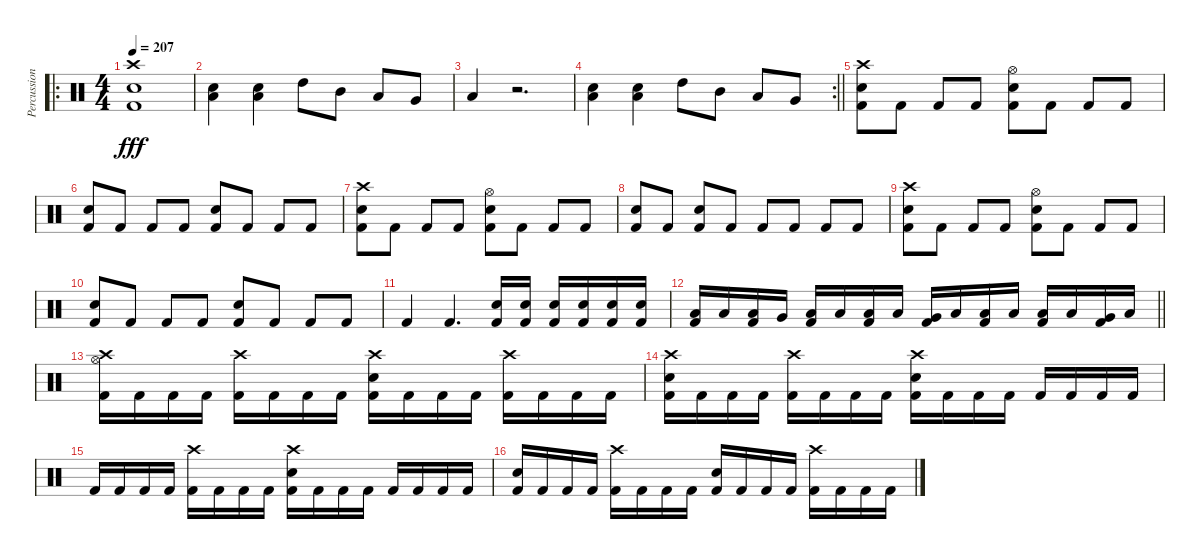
\track ("Percussion" "Percussion") {instrument percussion}
\staff {score}
\articulation defaults
\ro
\ts (4 4)
\section ("" "")
\tempo 207
\clef neutral
\ks c
("Crash high (hit)" "Electric Snare (hit)" "Kick (hit) 2").1{dy fff} |
("Low Floor Tom (hit)" "Electric Snare (hit)").4 ("Low Floor Tom (hit)" "Electric Snare (hit)").4 "High Tom (hit)".8 "Mid Tom (hit)".8 "Low Tom (hit)".8 "Very Low Tom (hit)".8 |
"Low Floor Tom (hit)".4 r.2{d} |
\rc 2
\barLineRight lightlight
("Low Floor Tom (hit)" "Electric Snare (hit)").4 ("Low Floor Tom (hit)" "Electric Snare (hit)").4 "High Tom (hit)".8 "Mid Tom (hit)".8 "Low Tom (hit)".8 "Very Low Tom (hit)".8 |
\section ("" "")
("Crash high (hit)" "Electric Snare (hit)" "Kick (hit) 2").8 "Kick (hit) 2".8 "Kick (hit) 2".8 "Kick (hit) 2".8 ("Hi-Hat (open)" "Electric Snare (hit)" "Kick (hit) 2").8 "Kick (hit) 2".8 "Kick (hit) 2".8 "Kick (hit) 2".8 |
("Electric Snare (hit)" "Kick (hit) 2").8 "Kick (hit) 2".8 "Kick (hit) 2".8 "Kick (hit) 2".8 ("Electric Snare (hit)" "Kick (hit) 2").8 "Kick (hit) 2".8 "Kick (hit) 2".8 "Kick (hit) 2".8 |
("Crash high (hit)" "Electric Snare (hit)" "Kick (hit) 2").8 "Kick (hit) 2".8 "Kick (hit) 2".8 "Kick (hit) 2".8 ("Hi-Hat (open)" "Electric Snare (hit)" "Kick (hit) 2").8 "Kick (hit) 2".8 "Kick (hit) 2".8 "Kick (hit) 2".8 |
("Electric Snare (hit)" "Kick (hit) 2").8 "Kick (hit) 2".8 ("Electric Snare (hit)" "Kick (hit) 2").8 "Kick (hit) 2".8 "Kick (hit) 2".8 "Kick (hit) 2".8 "Kick (hit) 2".8 "Kick (hit) 2".8 |
("Crash high (hit)" "Electric Snare (hit)" "Kick (hit) 2").8 "Kick (hit) 2".8 "Kick (hit) 2".8 "Kick (hit) 2".8 ("Hi-Hat (open)" "Electric Snare (hit)" "Kick (hit) 2").8 "Kick (hit) 2".8 "Kick (hit) 2".8 "Kick (hit) 2".8 |
("Electric Snare (hit)" "Kick (hit) 2").8 "Kick (hit) 2".8 "Kick (hit) 2".8 "Kick (hit) 2".8 ("Electric Snare (hit)" "Kick (hit) 2").8 "Kick (hit) 2".8 "Kick (hit) 2".8 "Kick (hit) 2".8 |
"Kick (hit) 2".4 "Kick (hit) 2".4{d} ("Electric Snare (hit)" "Kick (hit) 2").16 ("Electric Snare (hit)" "Kick (hit) 2").16 ("Electric Snare (hit)" "Kick (hit) 2").16 ("Electric Snare (hit)" "Kick (hit) 2").16 ("Electric Snare (hit)" "Kick (hit) 2").16 ("Electric Snare (hit)" "Kick (hit) 2").16 |
\barLineRight lightlight
("Low Tom (hit)" "Kick (hit) 2").16 "Low Tom (hit)".16 ("Low Tom (hit)" "Kick (hit) 2").16 "Very Low Tom (hit)".16 ("Low Floor Tom (hit)" "Kick (hit) 2").16 "Low Tom (hit)".16 ("Low Tom (hit)" "Kick (hit) 2").16 "Low Tom (hit)".16 ("Very Low Tom (hit)" "Kick (hit) 2").16 "Low Floor Tom (hit)".16 ("Low Tom (hit)" "Kick (hit) 2").16 "Low Tom (hit)".16 ("Low Tom (hit)" "Kick (hit) 2").16 "Low Tom (hit)".16 ("Very Low Tom (hit)" "Kick (hit) 2").16 "Low Floor Tom (hit)".16 |
\section ("" "")
("Crash high (hit)" "Hi-Hat (open)" "Kick (hit) 2").16 "Kick (hit) 2".16 "Kick (hit) 2".16 "Kick (hit) 2".16 ("Crash high (hit)" "Kick (hit) 2").16 "Kick (hit) 2".16 "Kick (hit) 2".16 "Kick (hit) 2".16 ("Crash high (hit)" "Electric Snare (hit)" "Kick (hit) 2").16 "Kick (hit) 2".16 "Kick (hit) 2".16 "Kick (hit) 2".16 ("Crash high (hit)" "Kick (hit) 2").16 "Kick (hit) 2".16 "Kick (hit) 2".16 "Kick (hit) 2".16 |
("Crash high (hit)" "Electric Snare (hit)" "Kick (hit) 2").16 "Kick (hit) 2".16 "Kick (hit) 2".16 "Kick (hit) 2".16 ("Crash high (hit)" "Kick (hit) 2").16 "Kick (hit) 2".16 "Kick (hit) 2".16 "Kick (hit) 2".16 ("Crash high (hit)" "Electric Snare (hit)" "Kick (hit) 2").16 "Kick (hit) 2".16 "Kick (hit) 2".16 "Kick (hit) 2".16 "Kick (hit) 2".16 "Kick (hit) 2".16 "Kick (hit) 2".16 "Kick (hit) 2".16 |
"Kick (hit) 2".16 "Kick (hit) 2".16 "Kick (hit) 2".16 "Kick (hit) 2".16 ("Crash high (hit)" "Kick (hit) 2").16 "Kick (hit) 2".16 "Kick (hit) 2".16 "Kick (hit) 2".16 ("Crash high (hit)" "Electric Snare (hit)" "Kick (hit) 2").16 "Kick (hit) 2".16 "Kick (hit) 2".16 "Kick (hit) 2".16 "Kick (hit) 2".16 "Kick (hit) 2".16 "Kick (hit) 2".16 "Kick (hit) 2".16 |
("Electric Snare (hit)" "Kick (hit) 2").16 "Kick (hit) 2".16 "Kick (hit) 2".16 "Kick (hit) 2".16 ("Crash high (hit)" "Kick (hit) 2").16 "Kick (hit) 2".16 "Kick (hit) 2".16 "Kick (hit) 2".16 ("Electric Snare (hit)" "Kick (hit) 2").16 "Kick (hit) 2".16 "Kick (hit) 2".16 "Kick (hit) 2".16 ("Crash high (hit)" "Kick (hit) 2").16 "Kick (hit) 2".16 "Kick (hit) 2".16 "Kick (hit) 2".16
